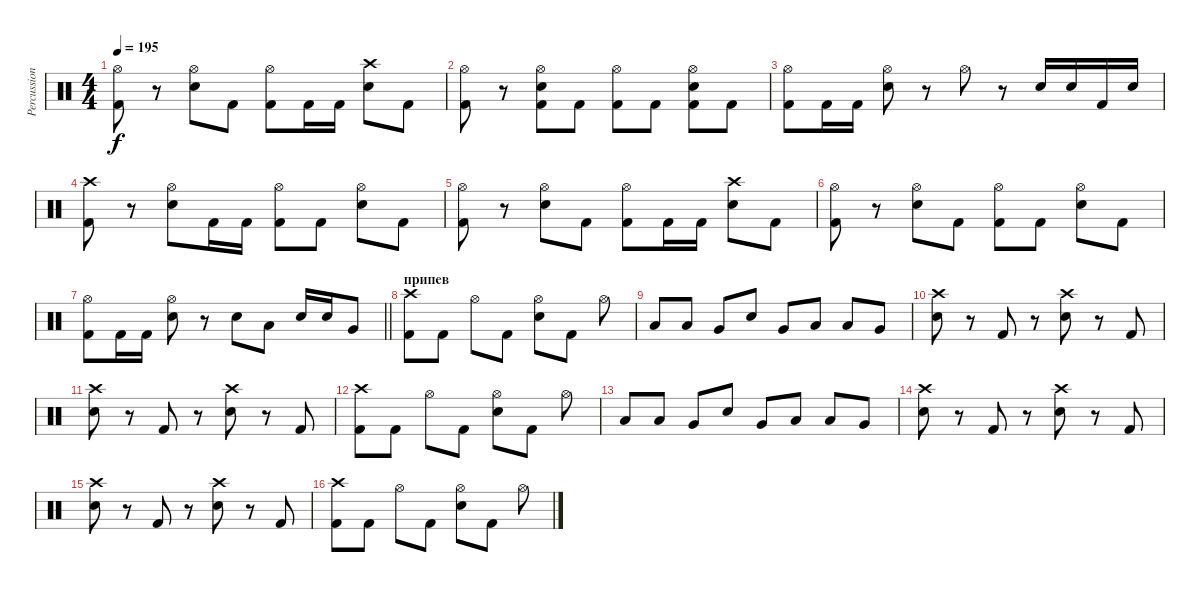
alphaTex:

\track ("Percussions" "Percussion") {instrument percussion}
\staff {score}
\articulation defaults
\ts (4 4)
\tempo 195
\clef neutral
\ks c
("Hi-Hat (open)" "Kick (hit) 2").8{dy f} r.8 ("Hi-Hat (open)" "Electric Snare (hit)").8 "Kick (hit) 2".8 ("Hi-Hat (open)" "Kick (hit) 2").8 "Kick (hit) 2".16 "Kick (hit) 2".16 ("Crash high (hit)" "Electric Snare (hit)").8 "Kick (hit) 2".8 |
("Hi-Hat (open)" "Kick (hit) 2").8 r.8 ("Hi-Hat (open)" "Kick (hit) 2" "Electric Snare (hit)").8 "Kick (hit) 2".8 ("Hi-Hat (open)" "Kick (hit) 2").8 "Kick (hit) 2".8 ("Hi-Hat (open)" "Kick (hit) 2" "Electric Snare (hit)").8 "Kick (hit) 2".8 |
("Hi-Hat (open)" "Kick (hit) 2").8 "Kick (hit) 2".16 "Kick (hit) 2".16 ("Hi-Hat (open)" "Electric Snare (hit)").8 r.8 "Hi-Hat (open)".8 r.8 "Electric Snare (hit)".16 "Electric Snare (hit)".16 "Kick (hit) 2".16 "Electric Snare (hit)".16 |
("Crash high (hit)" "Kick (hit) 2").8 r.8 ("Hi-Hat (open)" "Electric Snare (hit)").8 "Kick (hit) 2".16 "Kick (hit) 2".16 ("Hi-Hat (open)" "Kick (hit) 2").8 "Kick (hit) 2".8 ("Hi-Hat (open)" "Electric Snare (hit)").8 "Kick (hit) 2".8 |
("Hi-Hat (open)" "Kick (hit) 2").8 r.8 ("Hi-Hat (open)" "Electric Snare (hit)").8 "Kick (hit) 2".8 ("Hi-Hat (open)" "Kick (hit) 2").8 "Kick (hit) 2".16 "Kick (hit) 2".16 ("Crash high (hit)" "Electric Snare (hit)").8 "Kick (hit) 2".8 |
("Hi-Hat (open)" "Kick (hit) 2").8 r.8 ("Hi-Hat (open)" "Electric Snare (hit)").8 "Kick (hit) 2".8 ("Hi-Hat (open)" "Kick (hit) 2").8 "Kick (hit) 2".8 ("Hi-Hat (open)" "Electric Snare (hit)").8 "Kick (hit) 2".8 |
\barLineRight lightlight
("Hi-Hat (open)" "Kick (hit) 2").8 "Kick (hit) 2".16 "Kick (hit) 2".16 ("Hi-Hat (open)" "Electric Snare (hit)").8 r.8 "Electric Snare (hit)".8 "Low Floor Tom (hit)".8 "Electric Snare (hit)".16 "Electric Snare (hit)".16 "Very Low Tom (hit)".8 |
\section ("" "припев")
("Crash high (hit)" "Kick (hit) 2").8 "Kick (hit) 2".8 "Hi-Hat (open)".8 "Kick (hit) 2".8 ("Hi-Hat (open)" "Electric Snare (hit)").8 "Kick (hit) 2".8 "Hi-Hat (open)".8 |
"Low Floor Tom (hit)".8 "Low Floor Tom (hit)".8 "Very Low Tom (hit)".8 "Electric Snare (hit)".8 "Very Low Tom (hit)".8 "Low Floor Tom (hit)".8 "Low Floor Tom (hit)".8 "Very Low Tom (hit)".8 |
("Crash high (hit)" "Electric Snare (hit)").8 r.8 "Kick (hit) 2".8 r.8 ("Crash high (hit)" "Electric Snare (hit)").8 r.8 "Kick (hit) 2".8 |
("Crash high (hit)" "Electric Snare (hit)").8 r.8 "Kick (hit) 2".8 r.8 ("Crash high (hit)" "Electric Snare (hit)").8 r.8 "Kick (hit) 2".8 |
("Crash high (hit)" "Kick (hit) 2").8 "Kick (hit) 2".8 "Hi-Hat (open)".8 "Kick (hit) 2".8 ("Hi-Hat (open)" "Electric Snare (hit)").8 "Kick (hit) 2".8 "Hi-Hat (open)".8 |
"Low Floor Tom (hit)".8 "Low Floor Tom (hit)".8 "Very Low Tom (hit)".8 "Electric Snare (hit)".8 "Very Low Tom (hit)".8 "Low Floor Tom (hit)".8 "Low Floor Tom (hit)".8 "Very Low Tom (hit)".8 |
("Crash high (hit)" "Electric Snare (hit)").8 r.8 "Kick (hit) 2".8 r.8 ("Crash high (hit)" "Electric Snare (hit)").8 r.8 "Kick (hit) 2".8 |
("Crash high (hit)" "Electric Snare (hit)").8 r.8 "Kick (hit) 2".8 r.8 ("Crash high (hit)" "Electric Snare (hit)").8 r.8 "Kick (hit) 2".8 |
("Crash high (hit)" "Kick (hit) 2").8 "Kick (hit) 2".8 "Hi-Hat (open)".8 "Kick (hit) 2".8 ("Hi-Hat (open)" "Electric Snare (hit)").8 "Kick (hit) 2".8 "Hi-Hat (open)".8
